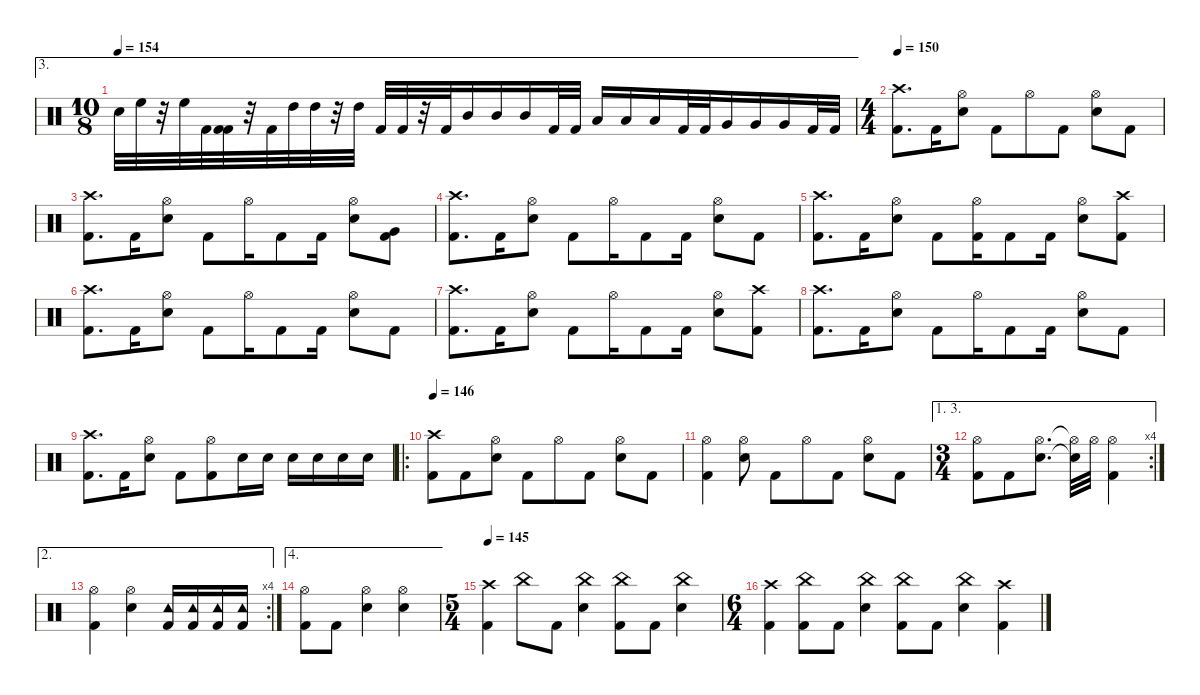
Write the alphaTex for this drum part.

\defaultSystemsLayout 4
\hideDynamics
\bracketExtendMode nobrackets
\singleTrackTrackNamePolicy hidden
\multiTrackTrackNamePolicy hidden
\firstSystemTrackNameMode fullname
\otherSystemsTrackNameOrientation horizontal
\track ("Drums" "drm.") {instrument percussion}
\staff {score}
\articulation defaults
\ae 3
\ts (10 8)
\beaming (8 3 3 4)
\tempo 154
\clef neutral
\ks c "Snare (hit) 2".32{dy f beam Down} "High Floor Tom (hit)".32{beam Down}
r.32{beam Down} "High Floor Tom (hit)".32{beam Down} "Kick (hit) 2".32{beam Down} ("Kick (hit) 2" "Kick (hit) 2").32{beam Down} r.32{beam Down} "Kick (hit) 2".32{beam Down} "High Tom (hit)".32{beam Down} "High Tom (hit)".32{beam Down} r.32{beam Down} "High Tom (hit)".32{beam Down} "Kick (hit) 2".32{beam Up} "Kick (hit) 2".32{beam Up} r.32{beam Up} "Kick (hit) 2".32{beam Up} "Mid Tom (hit)".16{beam Up} "Mid Tom (hit)".16{beam Up} "Mid Tom (hit)".16{beam Up} "Kick (hit) 2".32{beam Up} "Kick (hit) 2".32{beam Up} "Low Tom (hit)".16{beam Up} "Low Tom (hit)".16{beam Up} "Low Tom (hit)".16{beam Up} "Kick (hit) 2".32{beam Up} "Kick (hit) 2".32{beam Up} "Very Low Tom (hit)".16{beam Up} "Very Low Tom (hit)".16{beam Up} "Very Low Tom (hit)".16{beam Up} "Kick (hit) 2".32{beam Up} "Kick (hit) 2".32{beam Up} |
\ts (4 4)
\beaming (8 3 3 2)
\tempo 150
("Crash high (hit)" "Kick (hit) 2").8{d beam Down} "Kick (hit) 2".16{beam Down} ("Snare (hit) 2" "Hi-Hat (open)").8{beam Down} "Kick (hit) 2".8{beam Down} "Hi-Hat (open)".8{beam Down} "Kick (hit) 2".8{beam Down} ("Snare (hit) 2" "Hi-Hat (open)").8{beam Down} "Kick (hit) 2".8{beam Down} |
("Kick (hit) 2" "Crash high (hit)").8{d beam Down} "Kick (hit) 2".16{beam Down} ("Snare (hit) 2" "Hi-Hat (open)").8{beam Down} "Kick (hit) 2".8{beam Down} "Hi-Hat (open)".16{beam Down} "Kick (hit) 2".8{beam Down} "Kick (hit) 2".16{beam Down} ("Snare (hit) 2" "Hi-Hat (open)").8{beam Down} ("Kick (hit) 2" "Very Low Tom (hit)").8{beam Down} |
("Crash high (hit)" "Kick (hit) 2").8{d beam Down} "Kick (hit) 2".16{beam Down} ("Snare (hit) 2" "Hi-Hat (open)").8{beam Down} "Kick (hit) 2".8{beam Down} "Hi-Hat (open)".16{beam Down} "Kick (hit) 2".8{beam Down} "Kick (hit) 2".16{beam Down} ("Snare (hit) 2" "Hi-Hat (open)").8{beam Down} "Kick (hit) 2".8{beam Down} |
("Kick (hit) 2" "Crash high (hit)").8{d beam Down} "Kick (hit) 2".16{beam Down} ("Snare (hit) 2" "Hi-Hat (open)").8{beam Down} "Kick (hit) 2".8{beam Down} ("Hi-Hat (open)" "Kick (hit) 2").16{beam Down} "Kick (hit) 2".8{beam Down} "Kick (hit) 2".16{beam Down} ("Snare (hit) 2" "Hi-Hat (open)").8{beam Down} ("Kick (hit) 2" "Crash high (hit)").8{beam Down} |
("Kick (hit) 2" "Crash high (hit)").8{d beam Down} "Kick (hit) 2".16{beam Down} ("Snare (hit) 2" "Hi-Hat (open)").8{beam Down} "Kick (hit) 2".8{beam Down} "Hi-Hat (open)".16{beam Down} "Kick (hit) 2".8{beam Down} "Kick (hit) 2".16{beam Down} ("Snare (hit) 2" "Hi-Hat (open)").8{beam Down} "Kick (hit) 2".8{beam Down} |
("Kick (hit) 2" "Crash high (hit)").8{d beam Down} "Kick (hit) 2".16{beam Down} ("Snare (hit) 2" "Hi-Hat (open)").8{beam Down} "Kick (hit) 2".8{beam Down} "Hi-Hat (open)".16{beam Down} "Kick (hit) 2".8{beam Down} "Kick (hit) 2".16{beam Down} ("Snare (hit) 2" "Hi-Hat (open)").8{beam Down} ("Kick (hit) 2" "Crash high (hit)").8{beam Down} |
("Crash high (hit)" "Kick (hit) 2").8{d beam Down} "Kick (hit) 2".16{beam Down} ("Snare (hit) 2" "Hi-Hat (open)").8{beam Down} "Kick (hit) 2".8{beam Down} "Hi-Hat (open)".16{beam Down} "Kick (hit) 2".8{beam Down} "Kick (hit) 2".16{beam Down} ("Snare (hit) 2" "Hi-Hat (open)").8{beam Down} "Kick (hit) 2".8{beam Down} |
("Kick (hit) 2" "Crash high (hit)").8{d beam Down} "Kick (hit) 2".16{beam Down} ("Snare (hit) 2" "Hi-Hat (open)").8{beam Down} "Kick (hit) 2".8{beam Down} ("Kick (hit) 2" "Hi-Hat (open)").8{beam Down} "Snare (hit) 2".16{beam Down} "Snare (hit) 2".16{beam Down} "Snare (hit) 2".16{beam Down} "Snare (hit) 2".16{beam Down} "Snare (hit) 2".16{beam Down} "Snare (hit) 2".16{beam Down} |
\ro
\tempo 146
("Kick (hit) 2" "Crash high (hit)").8{beam Down} "Kick (hit) 2".8{beam Down} ("Snare (hit) 2" "Hi-Hat (open)").8{beam Down} "Kick (hit) 2".8{beam Down} "Hi-Hat (open)".8{beam Down} "Kick (hit) 2".8{beam Down} ("Hi-Hat (open)" "Snare (hit) 2").8{beam Down} "Kick (hit) 2".8{beam Down} |
("Hi-Hat (open)" "Kick (hit) 2").4{beam Down} ("Snare (hit) 2" "Hi-Hat (open)").8{beam Down} "Kick (hit) 2".8{beam Down} "Hi-Hat (open)".8{beam Down} "Kick (hit) 2".8{beam Down} ("Snare (hit) 2" "Hi-Hat (open)").8{beam Down} "Kick (hit) 2".8{beam Down} |
\ae (1 3)
\rc 4
\ts (3 4)
\beaming (8 3 3)
("Kick (hit) 2" "Hi-Hat (open)").8{beam Down} "Kick (hit) 2".8{beam Down} ("Snare (hit) 2" "Hi-Hat (open)").8{d beam Down} ("Snare (hit) 2"{t} "Hi-Hat (open)"{t}).32{beam Down} "Hi-Hat (open)".32{beam Down} ("Kick (hit) 2" "Hi-Hat (open)").4{beam Down} |
\ae 2
\rc 4
("Hi-Hat (open)" "Kick (hit) 2").4{beam Down} ("Snare (hit) 2" "Hi-Hat (open)").4{beam Down} ("Tambourine (hit)" "Kick (hit) 2").16{beam Up} ("Tambourine (hit)" "Kick (hit) 2").16{beam Up} ("Tambourine (hit)" "Kick (hit) 2").16{beam Up} ("Tambourine (hit)" "Kick (hit) 2").16{beam Up} |
\ae 4
("Kick (hit) 2" "Hi-Hat (open)").8{beam Down} "Kick (hit) 2".8{beam Down} ("Snare (hit) 2" "Hi-Hat (open)").4{beam Down} ("Hi-Hat (open)" "Snare (hit) 2").4{beam Down} |
\ts (5 4)
\beaming (8 6 4)
\tempo 145
("Kick (hit) 2" "Crash high (hit)").4{beam Down} "China (hit)".8{beam Down} "Kick (hit) 2".8{beam Down} ("China (hit)" "Snare (hit) 2").4{beam Down} ("China (hit)" "Kick (hit) 2").8{beam Down} "Kick (hit) 2".8{beam Down} ("China (hit)" "Snare (hit) 2").4{beam Down} |
\ts (6 4)
\beaming (8 6 4 2)
("Crash high (hit)" "Kick (hit) 2").4{beam Down} ("Kick (hit) 2" "China (hit)").8{beam Down} "Kick (hit) 2".8{beam Down} ("Snare (hit) 2" "China (hit)").4{beam Down} ("Kick (hit) 2" "China (hit)").8{beam Down} "Kick (hit) 2".8{beam Down} ("Snare (hit) 2" "China (hit)").4{beam Down} ("Kick (hit) 2" "Crash high (hit)").4{beam Down}
